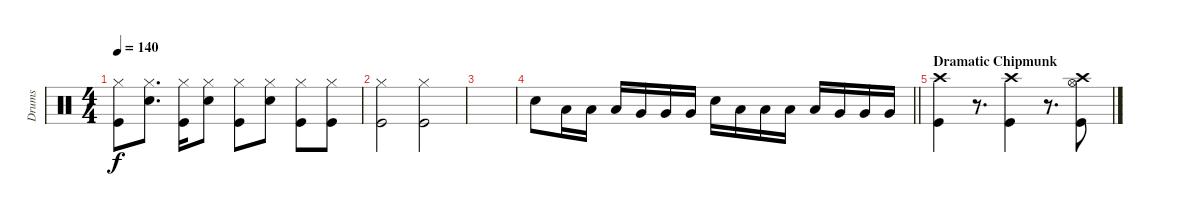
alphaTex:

\track ("Drums" "Drums") {instrument percussion}
\staff {score}
\articulation defaults
\ts (4 4)
\tempo 140
\clef neutral
\ks c
("Kick (hit)" "Hi-Hat (closed)").8{dy f} ("Electric Snare (hit)" "Hi-Hat (closed)").8{d} ("Kick (hit)" "Hi-Hat (closed)").16 ("Electric Snare (hit)" "Hi-Hat (closed)").8 ("Kick (hit)" "Hi-Hat (closed)").8 ("Electric Snare (hit)" "Hi-Hat (closed)").8 ("Kick (hit)" "Hi-Hat (closed)").8 ("Kick (hit)" "Hi-Hat (closed)").8 |
("Kick (hit)" "Hi-Hat (closed)").2 ("Kick (hit)" "Hi-Hat (closed)").2 |
|
\barLineRight lightlight "Electric Snare (hit)".8 "Low Tom (hit)".16 "Low Tom (hit)".16 "Low Tom (hit)".16 "Very Low Tom (hit)".16 "Very Low Tom (hit)".16 "Very Low Tom (hit)".16 "Electric Snare (hit)".16 "Low Tom (hit)".16 "Low Tom (hit)".16 "Low Tom (hit)".16 "Low Tom (hit)".16 "Very Low Tom (hit)".16 "Very Low Tom (hit)".16 "Very Low Tom (hit)".16
|
\section ("" "Dramatic Chipmunk")
("Crash high (hit)" "Kick (hit)").4 r.8{d} ("Crash high (hit)" "Kick (hit)").4 r.8{d} ("Hi-Hat (open)" "Crash high (hit)" "Kick (hit)").8
